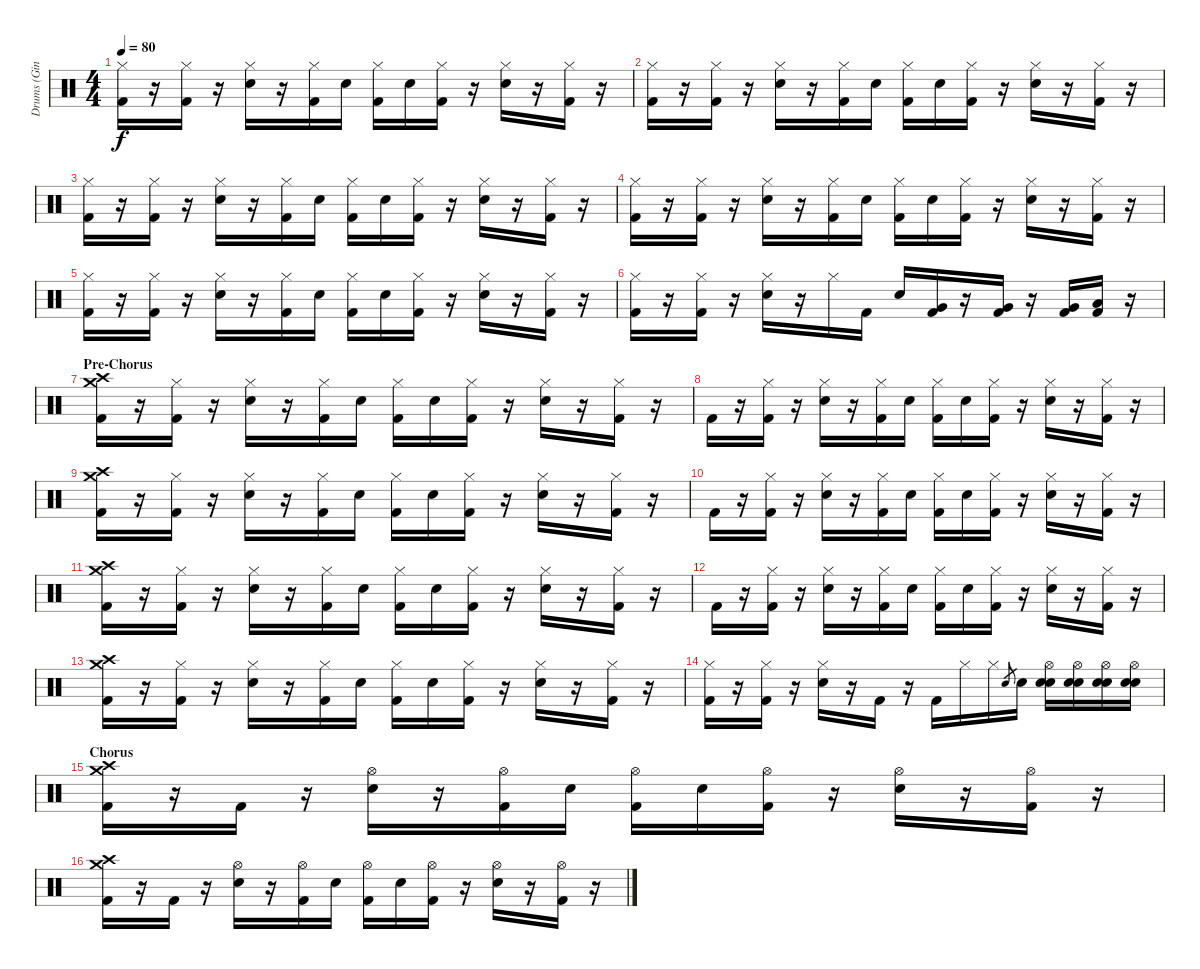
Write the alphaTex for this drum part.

\track ("Drums (Ginger Fish)" "Drums (Gin") {instrument percussion}
\staff {score}
\articulation defaults
\ts (4 4)
\tempo 80
\clef neutral
\ks c
("Hi-Hat (closed)" "Kick (hit) 2").16{dy f} r.16 ("Hi-Hat (closed)" "Kick (hit) 2").16 r.16 ("Hi-Hat (closed)" "Electric Snare (hit)").16 r.16 ("Hi-Hat (closed)" "Kick (hit) 2").16 "Electric Snare (hit)".16 ("Hi-Hat (closed)" "Kick (hit) 2").16 "Electric Snare (hit)".16 ("Hi-Hat (closed)" "Kick (hit) 2").16 r.16 ("Hi-Hat (closed)" "Electric Snare (hit)").16 r.16 ("Hi-Hat (closed)" "Kick (hit) 2").16 r.16 |
("Hi-Hat (closed)" "Kick (hit) 2").16 r.16 ("Hi-Hat (closed)" "Kick (hit) 2").16 r.16 ("Hi-Hat (closed)" "Electric Snare (hit)").16 r.16 ("Hi-Hat (closed)" "Kick (hit) 2").16 "Electric Snare (hit)".16 ("Hi-Hat (closed)" "Kick (hit) 2").16 "Electric Snare (hit)".16 ("Hi-Hat (closed)" "Kick (hit) 2").16 r.16 ("Hi-Hat (closed)" "Electric Snare (hit)").16 r.16 ("Hi-Hat (closed)" "Kick (hit) 2").16 r.16 |
("Hi-Hat (closed)" "Kick (hit) 2").16 r.16 ("Hi-Hat (closed)" "Kick (hit) 2").16 r.16 ("Hi-Hat (closed)" "Electric Snare (hit)").16 r.16 ("Hi-Hat (closed)" "Kick (hit) 2").16 "Electric Snare (hit)".16 ("Hi-Hat (closed)" "Kick (hit) 2").16 "Electric Snare (hit)".16 ("Hi-Hat (closed)" "Kick (hit) 2").16 r.16 ("Hi-Hat (closed)" "Electric Snare (hit)").16 r.16 ("Hi-Hat (closed)" "Kick (hit) 2").16 r.16 |
("Hi-Hat (closed)" "Kick (hit) 2").16 r.16 ("Hi-Hat (closed)" "Kick (hit) 2").16 r.16 ("Hi-Hat (closed)" "Electric Snare (hit)").16 r.16 ("Hi-Hat (closed)" "Kick (hit) 2").16 "Electric Snare (hit)".16 ("Hi-Hat (closed)" "Kick (hit) 2").16 "Electric Snare (hit)".16 ("Hi-Hat (closed)" "Kick (hit) 2").16 r.16 ("Hi-Hat (closed)" "Electric Snare (hit)").16 r.16 ("Hi-Hat (closed)" "Kick (hit) 2").16 r.16 |
("Hi-Hat (closed)" "Kick (hit) 2").16 r.16 ("Hi-Hat (closed)" "Kick (hit) 2").16 r.16 ("Hi-Hat (closed)" "Electric Snare (hit)").16 r.16 ("Hi-Hat (closed)" "Kick (hit) 2").16 "Electric Snare (hit)".16 ("Hi-Hat (closed)" "Kick (hit) 2").16 "Electric Snare (hit)".16 ("Hi-Hat (closed)" "Kick (hit) 2").16 r.16 ("Hi-Hat (closed)" "Electric Snare (hit)").16 r.16 ("Hi-Hat (closed)" "Kick (hit) 2").16 r.16 |
("Hi-Hat (closed)" "Kick (hit) 2").16 r.16 ("Hi-Hat (closed)" "Kick (hit) 2").16 r.16 ("Hi-Hat (closed)" "Electric Snare (hit)").16 r.16 "Hi-Hat (closed)".16 "Kick (hit) 2".16 "Snare (hit) 2".16 ("Very Low Tom (hit)" "Kick (hit) 2").16 r.16 ("Very Low Tom (hit)" "Kick (hit) 2").16 r.16 ("Very Low Tom (hit)" "Kick (hit) 2").16 ("Low Floor Tom (hit)" "Kick (hit) 2").16 r.16 |
\section ("" "Pre-Chorus")
("Crash high (hit)" "Crash medium (hit)" "Kick (hit) 2").16 r.16 ("Hi-Hat (closed)" "Kick (hit) 2").16 r.16 ("Hi-Hat (closed)" "Electric Snare (hit)").16 r.16 ("Hi-Hat (closed)" "Kick (hit) 2").16 "Electric Snare (hit)".16 ("Hi-Hat (closed)" "Kick (hit) 2").16 "Electric Snare (hit)".16 ("Hi-Hat (closed)" "Kick (hit) 2").16 r.16 ("Hi-Hat (closed)" "Electric Snare (hit)").16 r.16 ("Hi-Hat (closed)" "Kick (hit) 2").16 r.16 |
"Kick (hit) 2".16 r.16 ("Hi-Hat (closed)" "Kick (hit) 2").16 r.16 ("Hi-Hat (closed)" "Electric Snare (hit)").16 r.16 ("Hi-Hat (closed)" "Kick (hit) 2").16 "Electric Snare (hit)".16 ("Hi-Hat (closed)" "Kick (hit) 2").16 "Electric Snare (hit)".16 ("Hi-Hat (closed)" "Kick (hit) 2").16 r.16 ("Hi-Hat (closed)" "Electric Snare (hit)").16 r.16 ("Hi-Hat (closed)" "Kick (hit) 2").16 r.16 |
("Crash high (hit)" "Crash medium (hit)" "Kick (hit) 2").16 r.16 ("Hi-Hat (closed)" "Kick (hit) 2").16 r.16 ("Hi-Hat (closed)" "Electric Snare (hit)").16 r.16 ("Hi-Hat (closed)" "Kick (hit) 2").16 "Electric Snare (hit)".16 ("Hi-Hat (closed)" "Kick (hit) 2").16 "Electric Snare (hit)".16 ("Hi-Hat (closed)" "Kick (hit) 2").16 r.16 ("Hi-Hat (closed)" "Electric Snare (hit)").16 r.16 ("Hi-Hat (closed)" "Kick (hit) 2").16 r.16 |
"Kick (hit) 2".16 r.16 ("Hi-Hat (closed)" "Kick (hit) 2").16 r.16 ("Hi-Hat (closed)" "Electric Snare (hit)").16 r.16 ("Hi-Hat (closed)" "Kick (hit) 2").16 "Electric Snare (hit)".16 ("Hi-Hat (closed)" "Kick (hit) 2").16 "Electric Snare (hit)".16 ("Hi-Hat (closed)" "Kick (hit) 2").16 r.16 ("Hi-Hat (closed)" "Electric Snare (hit)").16 r.16 ("Hi-Hat (closed)" "Kick (hit) 2").16 r.16 |
("Crash high (hit)" "Crash medium (hit)" "Kick (hit) 2").16 r.16 ("Hi-Hat (closed)" "Kick (hit) 2").16 r.16 ("Hi-Hat (closed)" "Electric Snare (hit)").16 r.16 ("Hi-Hat (closed)" "Kick (hit) 2").16 "Electric Snare (hit)".16 ("Hi-Hat (closed)" "Kick (hit) 2").16 "Electric Snare (hit)".16 ("Hi-Hat (closed)" "Kick (hit) 2").16 r.16 ("Hi-Hat (closed)" "Electric Snare (hit)").16 r.16 ("Hi-Hat (closed)" "Kick (hit) 2").16 r.16 |
"Kick (hit) 2".16 r.16 ("Hi-Hat (closed)" "Kick (hit) 2").16 r.16 ("Hi-Hat (closed)" "Electric Snare (hit)").16 r.16 ("Hi-Hat (closed)" "Kick (hit) 2").16 "Electric Snare (hit)".16 ("Hi-Hat (closed)" "Kick (hit) 2").16 "Electric Snare (hit)".16 ("Hi-Hat (closed)" "Kick (hit) 2").16 r.16 ("Hi-Hat (closed)" "Electric Snare (hit)").16 r.16 ("Hi-Hat (closed)" "Kick (hit) 2").16 r.16 |
("Crash high (hit)" "Crash medium (hit)" "Kick (hit) 2").16 r.16 ("Hi-Hat (closed)" "Kick (hit) 2").16 r.16 ("Hi-Hat (closed)" "Electric Snare (hit)").16 r.16 ("Hi-Hat (closed)" "Kick (hit) 2").16 "Electric Snare (hit)".16 ("Hi-Hat (closed)" "Kick (hit) 2").16 "Electric Snare (hit)".16 ("Hi-Hat (closed)" "Kick (hit) 2").16 r.16 ("Hi-Hat (closed)" "Electric Snare (hit)").16 r.16 ("Hi-Hat (closed)" "Kick (hit) 2").16 r.16 |
("Hi-Hat (closed)" "Kick (hit) 2").16 r.16 ("Hi-Hat (closed)" "Kick (hit) 2").16 r.16 ("Hi-Hat (closed)" "Electric Snare (hit)").16 r.16 "Kick (hit) 2".16 r.16 "Kick (hit) 2".16 "Hi-Hat (closed)".16 "Hi-Hat (closed)".16 "Electric Snare (hit)".8{gr} "Electric Snare (hit)".16 ("Hi-Hat (open)" "Electric Snare (hit)" "Electric Snare (hit)").16 ("Hi-Hat (open)" "Electric Snare (hit)" "Electric Snare (hit)").16 ("Hi-Hat (open)" "Electric Snare (hit)" "Electric Snare (hit)").16 ("Hi-Hat (open)" "Electric Snare (hit)" "Electric Snare (hit)").16 |
\section ("" "Chorus")
("Crash high (hit)" "Crash medium (hit)" "Kick (hit) 2").16 r.16 "Kick (hit) 2".16 r.16 ("Hi-Hat (open)" "Electric Snare (hit)").16 r.16 ("Hi-Hat (open)" "Kick (hit) 2").16 "Electric Snare (hit)".16 ("Hi-Hat (open)" "Kick (hit) 2").16 "Electric Snare (hit)".16 ("Hi-Hat (open)" "Kick (hit) 2").16 r.16 ("Hi-Hat (open)" "Electric Snare (hit)").16 r.16 ("Hi-Hat (open)" "Kick (hit) 2").16 r.16 |
("Crash high (hit)" "Crash medium (hit)" "Kick (hit) 2").16 r.16 "Kick (hit) 2".16 r.16 ("Hi-Hat (open)" "Electric Snare (hit)").16 r.16 ("Hi-Hat (open)" "Kick (hit) 2").16 "Electric Snare (hit)".16 ("Hi-Hat (open)" "Kick (hit) 2").16 "Electric Snare (hit)".16 ("Hi-Hat (open)" "Kick (hit) 2").16 r.16 ("Hi-Hat (open)" "Electric Snare (hit)").16 r.16 ("Hi-Hat (open)" "Kick (hit) 2").16 r.16
